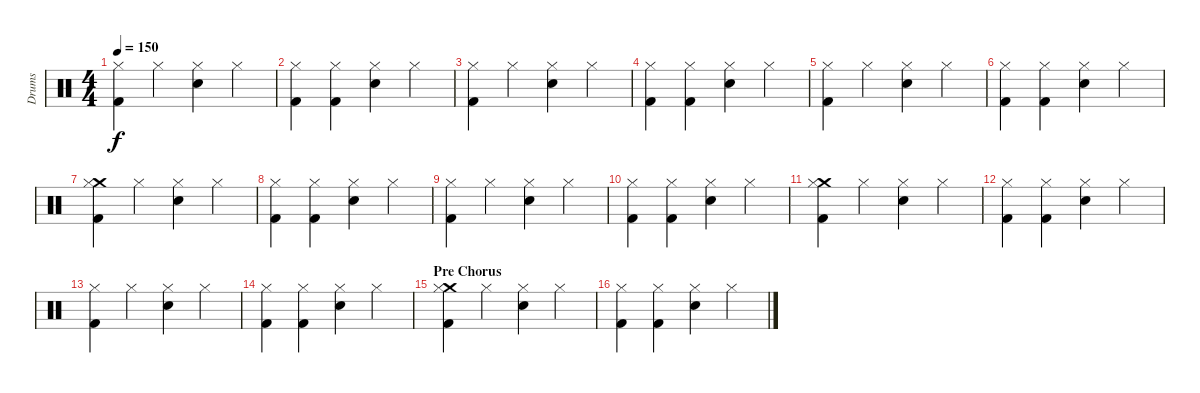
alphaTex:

\track ("Drums" "Drums") {instrument percussion}
\staff {score}
\articulation defaults
\ts (4 4)
\tempo 150
\clef neutral
\ks c
("Kick (hit) 2" "Hi-Hat (closed)").4{dy f} "Hi-Hat (closed)".4 ("Hi-Hat (closed)" "Snare (hit) 2").4 "Hi-Hat (closed)".4 |
("Kick (hit) 2" "Hi-Hat (closed)").4 ("Hi-Hat (closed)" "Kick (hit) 2").4 ("Hi-Hat (closed)" "Snare (hit) 2").4 "Hi-Hat (closed)".4 |
("Kick (hit) 2" "Hi-Hat (closed)").4 "Hi-Hat (closed)".4 ("Hi-Hat (closed)" "Snare (hit) 2").4 "Hi-Hat (closed)".4 |
("Kick (hit) 2" "Hi-Hat (closed)").4 ("Hi-Hat (closed)" "Kick (hit) 2").4 ("Hi-Hat (closed)" "Snare (hit) 2").4 "Hi-Hat (closed)".4 |
("Kick (hit) 2" "Hi-Hat (closed)").4 "Hi-Hat (closed)".4 ("Hi-Hat (closed)" "Snare (hit) 2").4 "Hi-Hat (closed)".4 |
("Kick (hit) 2" "Hi-Hat (closed)").4 ("Hi-Hat (closed)" "Kick (hit) 2").4 ("Hi-Hat (closed)" "Snare (hit) 2").4 "Hi-Hat (closed)".4 |
("Kick (hit) 2" "Crash medium (hit)" "Hi-Hat (closed)").4 "Hi-Hat (closed)".4 ("Hi-Hat (closed)" "Snare (hit) 2").4 "Hi-Hat (closed)".4 |
("Kick (hit) 2" "Hi-Hat (closed)").4 ("Hi-Hat (closed)" "Kick (hit) 2").4 ("Hi-Hat (closed)" "Snare (hit) 2").4 "Hi-Hat (closed)".4 |
("Kick (hit) 2" "Hi-Hat (closed)").4 "Hi-Hat (closed)".4 ("Hi-Hat (closed)" "Snare (hit) 2").4 "Hi-Hat (closed)".4 |
("Kick (hit) 2" "Hi-Hat (closed)").4 ("Hi-Hat (closed)" "Kick (hit) 2").4 ("Hi-Hat (closed)" "Snare (hit) 2").4 "Hi-Hat (closed)".4 |
("Kick (hit) 2" "Crash medium (hit)" "Hi-Hat (closed)").4 "Hi-Hat (closed)".4 ("Hi-Hat (closed)" "Snare (hit) 2").4 "Hi-Hat (closed)".4 |
("Kick (hit) 2" "Hi-Hat (closed)").4 ("Hi-Hat (closed)" "Kick (hit) 2").4 ("Hi-Hat (closed)" "Snare (hit) 2").4 "Hi-Hat (closed)".4 |
("Kick (hit) 2" "Hi-Hat (closed)").4 "Hi-Hat (closed)".4 ("Hi-Hat (closed)" "Snare (hit) 2").4 "Hi-Hat (closed)".4 |
("Kick (hit) 2" "Hi-Hat (closed)").4 ("Hi-Hat (closed)" "Kick (hit) 2").4 ("Hi-Hat (closed)" "Snare (hit) 2").4 "Hi-Hat (closed)".4 |
\section ("" "Pre Chorus")
("Kick (hit) 2" "Crash medium (hit)" "Hi-Hat (closed)").4 "Hi-Hat (closed)".4 ("Hi-Hat (closed)" "Snare (hit) 2").4 "Hi-Hat (closed)".4 |
("Kick (hit) 2" "Hi-Hat (closed)").4 ("Hi-Hat (closed)" "Kick (hit) 2").4 ("Hi-Hat (closed)" "Snare (hit) 2").4 "Hi-Hat (closed)".4
